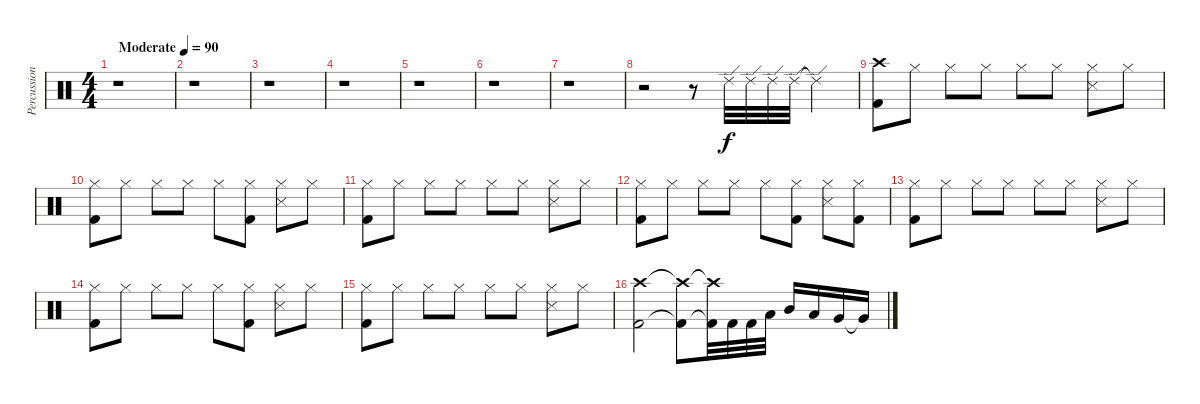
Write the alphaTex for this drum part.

\track ("Percussion" "Percussion") {instrument percussion}
\staff {score}
\articulation defaults
\ts (4 4)
\tempo (90 "Moderate")
\clef neutral
\ks c
r.1{dy f} |
r.1 |
r.1 |
r.1 |
r.1 |
r.1 |
r.1 |
r.2 r.8 "Ride (edge) 2".32 "Ride (edge) 2".32 "Ride (edge) 2".32 "Ride (edge) 2".32 "Ride (edge) 2"{t}.4 |
("Crash high (hit)" "Kick (hit) 2").8 "Hi-Hat (closed)".8 "Hi-Hat (closed)".8 "Hi-Hat (closed)".8 "Hi-Hat (closed)".8 "Hi-Hat (closed)".8 ("Hi-Hat (closed)" "Snare (side stick) 3").8 "Hi-Hat (closed)".8 |
("Hi-Hat (closed)" "Kick (hit) 2").8 "Hi-Hat (closed)".8 "Hi-Hat (closed)".8 "Hi-Hat (closed)".8 "Hi-Hat (closed)".8 ("Hi-Hat (closed)" "Kick (hit) 2").8 ("Hi-Hat (closed)" "Snare (side stick) 3").8 "Hi-Hat (closed)".8 |
("Hi-Hat (closed)" "Kick (hit) 2").8 "Hi-Hat (closed)".8 "Hi-Hat (closed)".8 "Hi-Hat (closed)".8 "Hi-Hat (closed)".8 "Hi-Hat (closed)".8 ("Hi-Hat (closed)" "Snare (side stick) 3").8 "Hi-Hat (closed)".8 |
("Hi-Hat (closed)" "Kick (hit) 2").8 "Hi-Hat (closed)".8 "Hi-Hat (closed)".8 "Hi-Hat (closed)".8 "Hi-Hat (closed)".8 ("Hi-Hat (closed)" "Kick (hit) 2").8 ("Hi-Hat (closed)" "Snare (side stick) 3").8 ("Hi-Hat (closed)" "Kick (hit) 2").8 |
("Hi-Hat (closed)" "Kick (hit) 2").8 "Hi-Hat (closed)".8 "Hi-Hat (closed)".8 "Hi-Hat (closed)".8 "Hi-Hat (closed)".8 "Hi-Hat (closed)".8 ("Hi-Hat (closed)" "Snare (side stick) 3").8 "Hi-Hat (closed)".8 |
("Hi-Hat (closed)" "Kick (hit) 2").8 "Hi-Hat (closed)".8 "Hi-Hat (closed)".8 "Hi-Hat (closed)".8 "Hi-Hat (closed)".8 ("Hi-Hat (closed)" "Kick (hit) 2").8 ("Hi-Hat (closed)" "Snare (side stick) 3").8 "Hi-Hat (closed)".8 |
("Hi-Hat (closed)" "Kick (hit) 2").8 "Hi-Hat (closed)".8 "Hi-Hat (closed)".8 "Hi-Hat (closed)".8 "Hi-Hat (closed)".8 "Hi-Hat (closed)".8 ("Hi-Hat (closed)" "Snare (side stick) 3").8 "Hi-Hat (closed)".8 |
("Crash high (hit)" "Kick (hit) 2").2 ("Crash high (hit)"{t} "Kick (hit) 2"{t}).8 ("Crash high (hit)"{t} "Kick (hit) 2"{t}).32 "Kick (hit) 2".32 "Kick (hit) 2".32 "Low Tom (hit)".32 "Mid Tom (hit)".16 "Low Tom (hit)".16 "Very Low Tom (hit)".16 "Very Low Tom (hit)"{t}.16
